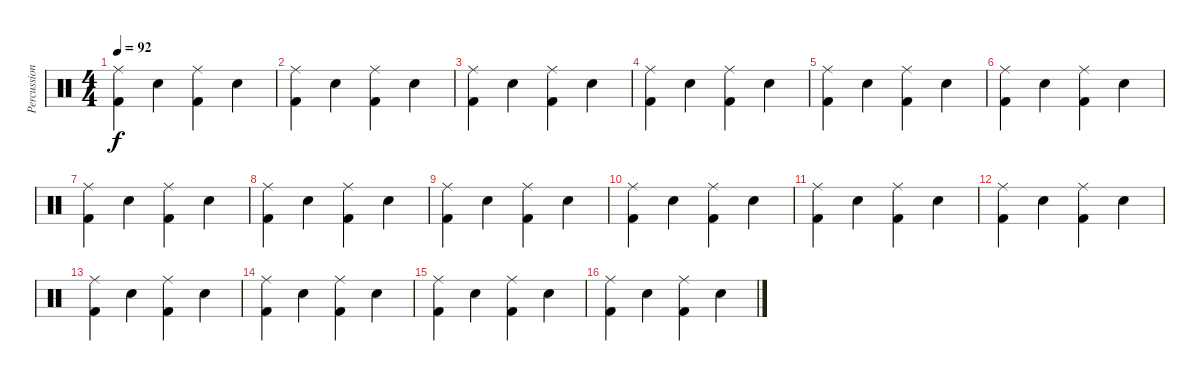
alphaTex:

\track ("Percussions" "Percussion") {instrument percussion}
\staff {score}
\articulation defaults
\ts (4 4)
\tempo 92
\clef neutral
\ks c
("Kick (hit) 2" "Ride (middle)").4{dy f} "Snare (hit) 2".4 ("Kick (hit) 2" "Ride (middle)").4 "Snare (hit) 2".4 |
("Kick (hit) 2" "Ride (middle)").4 "Snare (hit) 2".4 ("Kick (hit) 2" "Ride (middle)").4 "Snare (hit) 2".4 |
("Kick (hit) 2" "Ride (middle)").4 "Snare (hit) 2".4 ("Kick (hit) 2" "Ride (middle)").4 "Snare (hit) 2".4 |
("Kick (hit) 2" "Ride (middle)").4 "Snare (hit) 2".4 ("Kick (hit) 2" "Ride (middle)").4 "Snare (hit) 2".4 |
("Kick (hit) 2" "Ride (middle)").4 "Snare (hit) 2".4 ("Kick (hit) 2" "Ride (middle)").4 "Snare (hit) 2".4 |
("Kick (hit) 2" "Ride (middle)").4 "Snare (hit) 2".4 ("Kick (hit) 2" "Ride (middle)").4 "Snare (hit) 2".4 |
("Kick (hit) 2" "Ride (middle)").4 "Snare (hit) 2".4 ("Kick (hit) 2" "Ride (middle)").4 "Snare (hit) 2".4 |
("Kick (hit) 2" "Ride (middle)").4 "Snare (hit) 2".4 ("Kick (hit) 2" "Ride (middle)").4 "Snare (hit) 2".4 |
("Kick (hit) 2" "Ride (middle)").4 "Snare (hit) 2".4 ("Kick (hit) 2" "Ride (middle)").4 "Snare (hit) 2".4 |
("Kick (hit) 2" "Ride (middle)").4 "Snare (hit) 2".4 ("Kick (hit) 2" "Ride (middle)").4 "Snare (hit) 2".4 |
("Kick (hit) 2" "Ride (middle)").4 "Snare (hit) 2".4 ("Kick (hit) 2" "Ride (middle)").4 "Snare (hit) 2".4 |
("Kick (hit) 2" "Ride (middle)").4 "Snare (hit) 2".4 ("Kick (hit) 2" "Ride (middle)").4 "Snare (hit) 2".4 |
("Kick (hit) 2" "Ride (middle)").4 "Snare (hit) 2".4 ("Kick (hit) 2" "Ride (middle)").4 "Snare (hit) 2".4 |
("Kick (hit) 2" "Ride (middle)").4 "Snare (hit) 2".4 ("Kick (hit) 2" "Ride (middle)").4 "Snare (hit) 2".4 |
("Kick (hit) 2" "Ride (middle)").4 "Snare (hit) 2".4 ("Kick (hit) 2" "Ride (middle)").4 "Snare (hit) 2".4 |
("Kick (hit) 2" "Ride (middle)").4 "Snare (hit) 2".4 ("Kick (hit) 2" "Ride (middle)").4 "Snare (hit) 2".4
